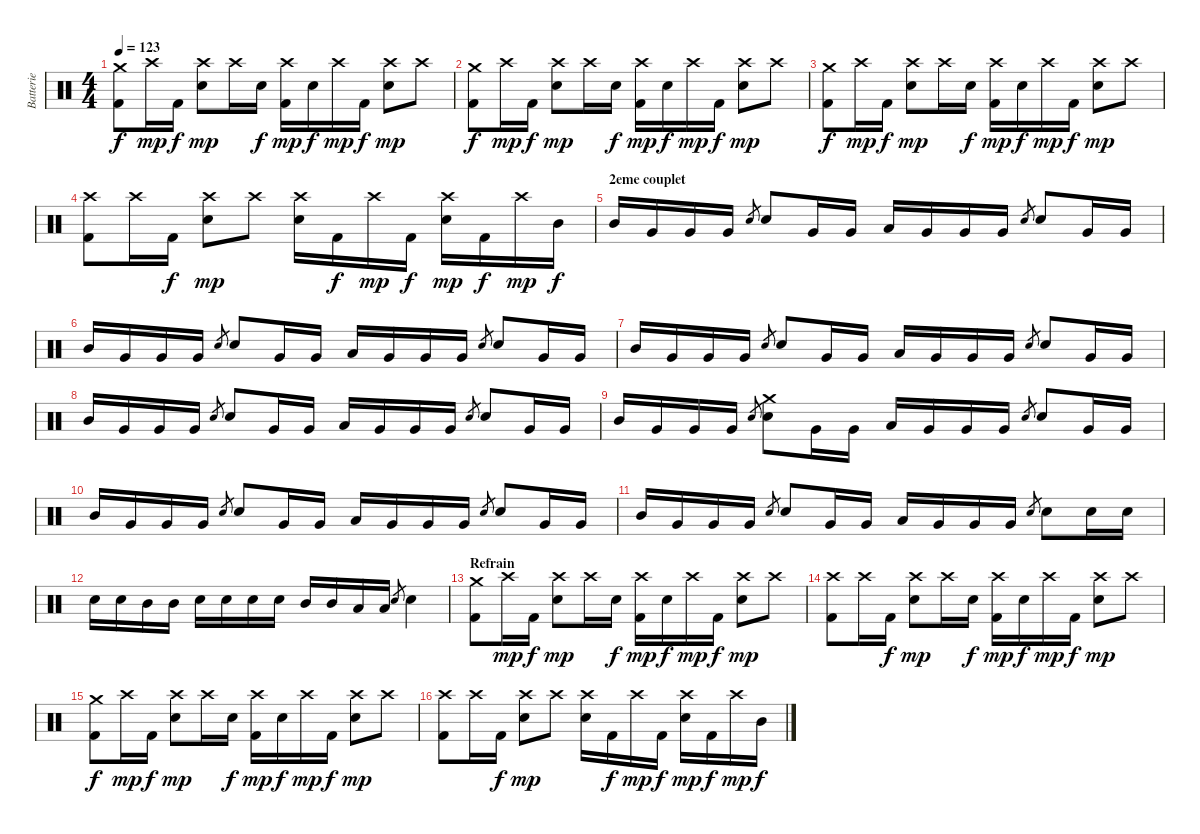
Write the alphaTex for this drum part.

\track ("Batterie" "Batterie") {instrument percussion}
\staff {score}
\articulation defaults
\ts (4 4)
\tempo 123
\clef neutral
\ks c
("Crash medium (hit)" "Kick (hit) 2").8{dy f} "Crash high (hit)".16{dy mp} "Kick (hit) 2".16{dy f} ("Crash high (hit)" "Snare (hit) 2").8{dy mp} "Crash high (hit)".16 "Snare (hit) 2".16{dy f} ("Crash high (hit)" "Kick (hit) 2").16{dy mp} "Snare (hit) 2".16{dy f} "Crash high (hit)".16{dy mp} "Kick (hit) 2".16{dy f} ("Crash high (hit)" "Snare (hit) 2").8{dy mp} "Crash high (hit)".8 |
("Crash medium (hit)" "Kick (hit) 2").8{dy f} "Crash high (hit)".16{dy mp} "Kick (hit) 2".16{dy f} ("Crash high (hit)" "Snare (hit) 2").8{dy mp} "Crash high (hit)".16 "Snare (hit) 2".16{dy f} ("Crash high (hit)" "Kick (hit) 2").16{dy mp} "Snare (hit) 2".16{dy f} "Crash high (hit)".16{dy mp} "Kick (hit) 2".16{dy f} ("Crash high (hit)" "Snare (hit) 2").8{dy mp} "Crash high (hit)".8 |
("Crash medium (hit)" "Kick (hit) 2").8{dy f} "Crash high (hit)".16{dy mp} "Kick (hit) 2".16{dy f} ("Crash high (hit)" "Snare (hit) 2").8{dy mp} "Crash high (hit)".16 "Snare (hit) 2".16{dy f} ("Crash high (hit)" "Kick (hit) 2").16{dy mp} "Snare (hit) 2".16{dy f} "Crash high (hit)".16{dy mp} "Kick (hit) 2".16{dy f} ("Crash high (hit)" "Snare (hit) 2").8{dy mp} "Crash high (hit)".8 |
("Crash high (hit)" "Kick (hit) 2").8 "Crash high (hit)".16 "Kick (hit) 2".16{dy f} ("Crash high (hit)" "Snare (hit) 2").8{dy mp} "Crash high (hit)".8 ("Crash high (hit)" "Snare (hit) 2").16 "Kick (hit) 2".16{dy f} "Crash high (hit)".16{dy mp} "Kick (hit) 2".16{dy f} ("Crash high (hit)" "Snare (hit) 2").16{dy mp} "Kick (hit) 2".16{dy f} "Crash high (hit)".16{dy mp} "Mid Tom (hit)".16{dy f} |
\section ("" "2eme couplet")
"Mid Tom (hit)".16 "Very Low Tom (hit)".16 "Very Low Tom (hit)".16 "Very Low Tom (hit)".16 "Snare (hit) 2".8{gr} "Snare (hit) 2".8 "Very Low Tom (hit)".16 "Very Low Tom (hit)".16 "Low Tom (hit)".16 "Very Low Tom (hit)".16 "Very Low Tom (hit)".16 "Very Low Tom (hit)".16 "Snare (hit) 2".8{gr} "Snare (hit) 2".8 "Very Low Tom (hit)".16 "Very Low Tom (hit)".16 |
"Mid Tom (hit)".16 "Very Low Tom (hit)".16 "Very Low Tom (hit)".16 "Very Low Tom (hit)".16 "Snare (hit) 2".8{gr} "Snare (hit) 2".8 "Very Low Tom (hit)".16 "Very Low Tom (hit)".16 "Low Tom (hit)".16 "Very Low Tom (hit)".16 "Very Low Tom (hit)".16 "Very Low Tom (hit)".16 "Snare (hit) 2".8{gr} "Snare (hit) 2".8 "Very Low Tom (hit)".16 "Very Low Tom (hit)".16 |
"Mid Tom (hit)".16 "Very Low Tom (hit)".16 "Very Low Tom (hit)".16 "Very Low Tom (hit)".16 "Snare (hit) 2".8{gr} "Snare (hit) 2".8 "Very Low Tom (hit)".16 "Very Low Tom (hit)".16 "Low Tom (hit)".16 "Very Low Tom (hit)".16 "Very Low Tom (hit)".16 "Very Low Tom (hit)".16 "Snare (hit) 2".8{gr} "Snare (hit) 2".8 "Very Low Tom (hit)".16 "Very Low Tom (hit)".16 |
"Mid Tom (hit)".16 "Very Low Tom (hit)".16 "Very Low Tom (hit)".16 "Very Low Tom (hit)".16 "Snare (hit) 2".8{gr} "Snare (hit) 2".8 "Very Low Tom (hit)".16 "Very Low Tom (hit)".16 "Low Tom (hit)".16 "Very Low Tom (hit)".16 "Very Low Tom (hit)".16 "Very Low Tom (hit)".16 "Snare (hit) 2".8{gr} "Snare (hit) 2".8 "Very Low Tom (hit)".16 "Very Low Tom (hit)".16 |
"Mid Tom (hit)".16 "Very Low Tom (hit)".16 "Very Low Tom (hit)".16 "Very Low Tom (hit)".16 "Snare (hit) 2".8{gr} ("Crash medium (hit)" "Snare (hit) 2").8 "Very Low Tom (hit)".16 "Very Low Tom (hit)".16 "Low Tom (hit)".16 "Very Low Tom (hit)".16 "Very Low Tom (hit)".16 "Very Low Tom (hit)".16 "Snare (hit) 2".8{gr} "Snare (hit) 2".8 "Very Low Tom (hit)".16 "Very Low Tom (hit)".16 |
"Mid Tom (hit)".16 "Very Low Tom (hit)".16 "Very Low Tom (hit)".16 "Very Low Tom (hit)".16 "Snare (hit) 2".8{gr} "Snare (hit) 2".8 "Very Low Tom (hit)".16 "Very Low Tom (hit)".16 "Low Tom (hit)".16 "Very Low Tom (hit)".16 "Very Low Tom (hit)".16 "Very Low Tom (hit)".16 "Snare (hit) 2".8{gr} "Snare (hit) 2".8 "Very Low Tom (hit)".16 "Very Low Tom (hit)".16 |
"Mid Tom (hit)".16 "Very Low Tom (hit)".16 "Very Low Tom (hit)".16 "Very Low Tom (hit)".16 "Snare (hit) 2".8{gr} "Snare (hit) 2".8 "Very Low Tom (hit)".16 "Very Low Tom (hit)".16 "Low Tom (hit)".16 "Very Low Tom (hit)".16 "Very Low Tom (hit)".16 "Very Low Tom (hit)".16 "Snare (hit) 2".8{gr} "Snare (hit) 2".8 "Snare (hit) 2".16 "Snare (hit) 2".16 |
"Snare (hit) 2".16 "Snare (hit) 2".16 "Mid Tom (hit)".16 "Mid Tom (hit)".16 "Snare (hit) 2".16 "Snare (hit) 2".16 "Snare (hit) 2".16 "Snare (hit) 2".16 "Mid Tom (hit)".16 "Mid Tom (hit)".16 "Low Tom (hit)".16 "Low Tom (hit)".16 "Snare (hit) 2".8{gr} "Snare (hit) 2".4 |
\section ("" "Refrain")
("Crash medium (hit)" "Kick (hit) 2").8 "Crash high (hit)".16{dy mp} "Kick (hit) 2".16{dy f} ("Crash high (hit)" "Snare (hit) 2").8{dy mp} "Crash high (hit)".16 "Snare (hit) 2".16{dy f} ("Crash high (hit)" "Kick (hit) 2").16{dy mp} "Snare (hit) 2".16{dy f} "Crash high (hit)".16{dy mp} "Kick (hit) 2".16{dy f} ("Crash high (hit)" "Snare (hit) 2").8{dy mp} "Crash high (hit)".8 |
("Crash high (hit)" "Kick (hit) 2").8 "Crash high (hit)".16 "Kick (hit) 2".16{dy f} ("Crash high (hit)" "Snare (hit) 2").8{dy mp} "Crash high (hit)".16 "Snare (hit) 2".16{dy f} ("Crash high (hit)" "Kick (hit) 2").16{dy mp} "Snare (hit) 2".16{dy f} "Crash high (hit)".16{dy mp} "Kick (hit) 2".16{dy f} ("Crash high (hit)" "Snare (hit) 2").8{dy mp} "Crash high (hit)".8 |
("Crash medium (hit)" "Kick (hit) 2").8{dy f} "Crash high (hit)".16{dy mp} "Kick (hit) 2".16{dy f} ("Crash high (hit)" "Snare (hit) 2").8{dy mp} "Crash high (hit)".16 "Snare (hit) 2".16{dy f} ("Crash high (hit)" "Kick (hit) 2").16{dy mp} "Snare (hit) 2".16{dy f} "Crash high (hit)".16{dy mp} "Kick (hit) 2".16{dy f} ("Crash high (hit)" "Snare (hit) 2").8{dy mp} "Crash high (hit)".8 |
("Crash high (hit)" "Kick (hit) 2").8 "Crash high (hit)".16 "Kick (hit) 2".16{dy f} ("Crash high (hit)" "Snare (hit) 2").8{dy mp} "Crash high (hit)".8 ("Crash high (hit)" "Snare (hit) 2").16 "Kick (hit) 2".16{dy f} "Crash high (hit)".16{dy mp} "Kick (hit) 2".16{dy f} ("Crash high (hit)" "Snare (hit) 2").16{dy mp} "Kick (hit) 2".16{dy f} "Crash high (hit)".16{dy mp} "Mid Tom (hit)".16{dy f}
